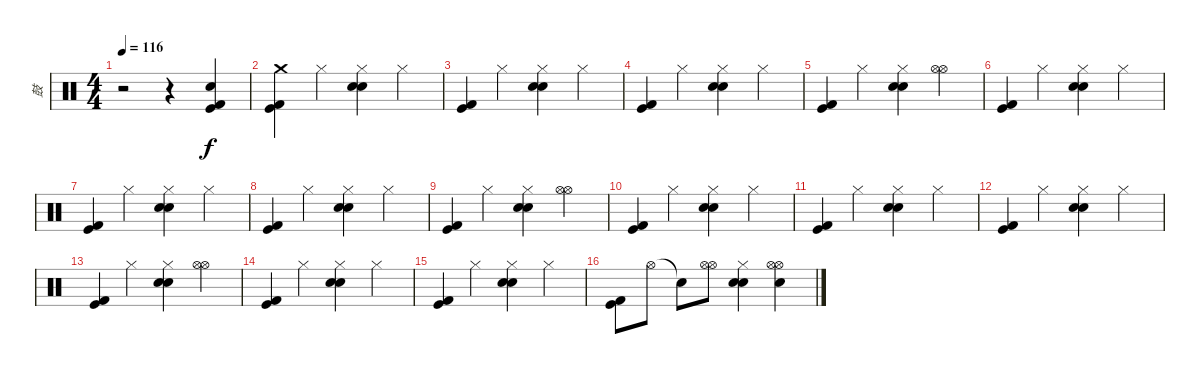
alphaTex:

\track ("鼓" "鼓") {instrument percussion}
\staff {score}
\articulation defaults
\ts (4 4)
\tempo 116
\clef neutral
\ks c
r.2{dy f} r.4 ("Snare (hit) 2" "Kick (hit) 2" "Kick (hit)").4 |
("Kick (hit) 2" "Kick (hit)" "Crash medium (hit)").4 "Hi-Hat (closed)".4 ("Electric Snare (hit)" "Snare (hit) 2" "Hi-Hat (closed)").4 "Hi-Hat (closed)".4 |
("Kick (hit) 2" "Kick (hit)").4 "Hi-Hat (closed)".4 ("Electric Snare (hit)" "Snare (hit) 2" "Hi-Hat (closed)").4 "Hi-Hat (closed)".4 |
("Kick (hit) 2" "Kick (hit)").4 "Hi-Hat (closed)".4 ("Electric Snare (hit)" "Snare (hit) 2" "Hi-Hat (closed)").4 "Hi-Hat (closed)".4 |
("Kick (hit) 2" "Kick (hit)").4 "Hi-Hat (closed)".4 ("Electric Snare (hit)" "Snare (hit) 2" "Hi-Hat (closed)").4 ("Hi-Hat (open)" "Hi-Hat (open)").4 |
("Kick (hit) 2" "Kick (hit)").4 "Hi-Hat (closed)".4 ("Electric Snare (hit)" "Snare (hit) 2" "Hi-Hat (closed)").4 "Hi-Hat (closed)".4 |
("Kick (hit) 2" "Kick (hit)").4 "Hi-Hat (closed)".4 ("Electric Snare (hit)" "Snare (hit) 2" "Hi-Hat (closed)").4 "Hi-Hat (closed)".4 |
("Kick (hit) 2" "Kick (hit)").4 "Hi-Hat (closed)".4 ("Electric Snare (hit)" "Snare (hit) 2" "Hi-Hat (closed)").4 "Hi-Hat (closed)".4 |
("Kick (hit) 2" "Kick (hit)").4 "Hi-Hat (closed)".4 ("Electric Snare (hit)" "Snare (hit) 2" "Hi-Hat (closed)").4 ("Hi-Hat (open)" "Hi-Hat (open)").4 |
("Kick (hit) 2" "Kick (hit)").4 "Hi-Hat (closed)".4 ("Electric Snare (hit)" "Snare (hit) 2" "Hi-Hat (closed)").4 "Hi-Hat (closed)".4 |
("Kick (hit) 2" "Kick (hit)").4 "Hi-Hat (closed)".4 ("Electric Snare (hit)" "Snare (hit) 2" "Hi-Hat (closed)").4 "Hi-Hat (closed)".4 |
("Kick (hit) 2" "Kick (hit)").4 "Hi-Hat (closed)".4 ("Electric Snare (hit)" "Snare (hit) 2" "Hi-Hat (closed)").4 "Hi-Hat (closed)".4 |
("Kick (hit) 2" "Kick (hit)").4 "Hi-Hat (closed)".4 ("Electric Snare (hit)" "Snare (hit) 2" "Hi-Hat (closed)").4 ("Hi-Hat (open)" "Hi-Hat (open)").4 |
("Kick (hit) 2" "Kick (hit)").4 "Hi-Hat (closed)".4 ("Electric Snare (hit)" "Snare (hit) 2" "Hi-Hat (closed)").4 "Hi-Hat (closed)".4 |
("Kick (hit) 2" "Kick (hit)").4 "Hi-Hat (closed)".4 ("Electric Snare (hit)" "Snare (hit) 2" "Hi-Hat (closed)").4 "Hi-Hat (closed)".4 |
("Kick (hit) 2" "Kick (hit)").8 "Hi-Hat (open)".8 "Snare (hit)"{t}.8 ("Hi-Hat (open)" "Hi-Hat (open)").8 ("Electric Snare (hit)" "Snare (hit) 2" "Hi-Hat (closed)").4 ("Electric Snare (hit)" "Hi-Hat (open)" "Hi-Hat (open)").4
